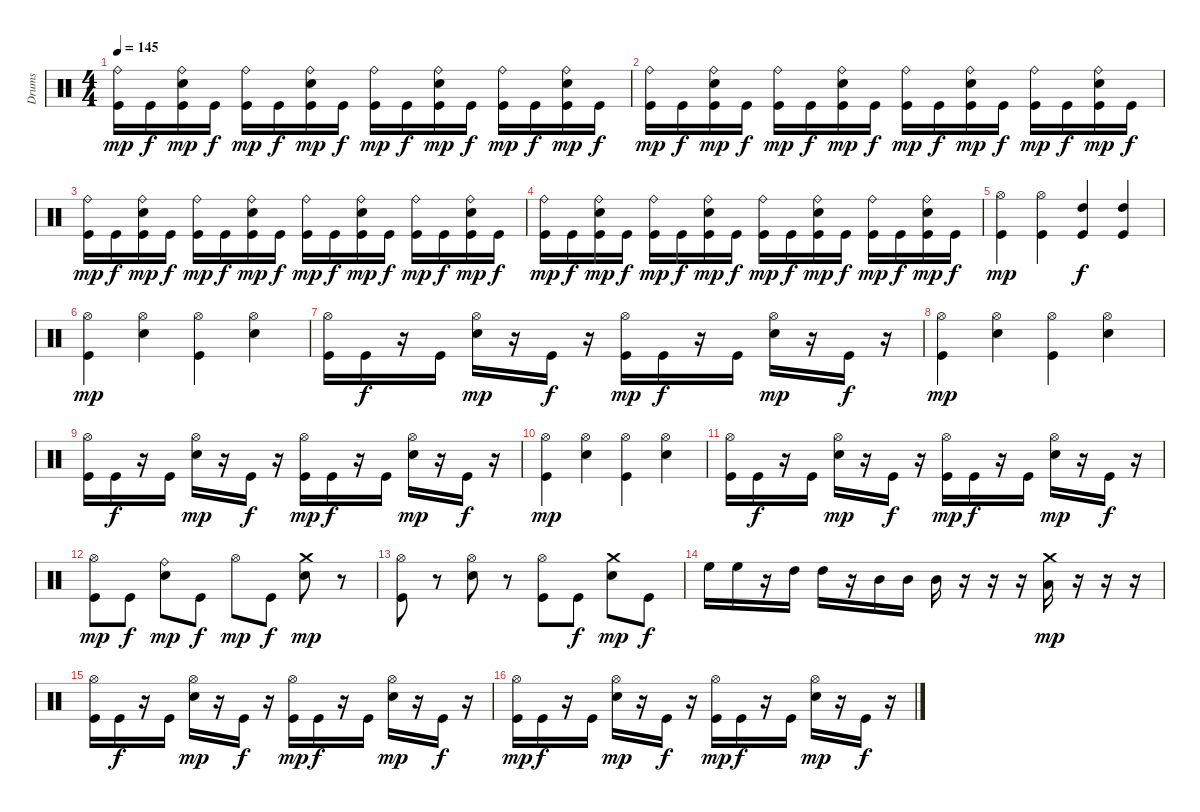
\track ("Drums" "Drums") {instrument percussion}
\staff {score}
\articulation defaults
\ts (4 4)
\tempo 145
\clef neutral
\ks c
("Kick (hit)" "Ride (bell)").16{dy mp} "Kick (hit)".16{dy f} ("Kick (hit)" "Snare (hit) 2" "Ride (bell)").16{dy mp} "Kick (hit)".16{dy f} ("Kick (hit)" "Ride (bell)").16{dy mp} "Kick (hit)".16{dy f} ("Kick (hit)" "Snare (hit) 2" "Ride (bell)").16{dy mp} "Kick (hit)".16{dy f} ("Kick (hit)" "Ride (bell)").16{dy mp} "Kick (hit)".16{dy f} ("Kick (hit)" "Snare (hit) 2" "Ride (bell)").16{dy mp} "Kick (hit)".16{dy f} ("Kick (hit)" "Ride (bell)").16{dy mp} "Kick (hit)".16{dy f} ("Kick (hit)" "Snare (hit) 2" "Ride (bell)").16{dy mp} "Kick (hit)".16{dy f} |
("Kick (hit)" "Ride (bell)").16{dy mp} "Kick (hit)".16{dy f} ("Kick (hit)" "Snare (hit) 2" "Ride (bell)").16{dy mp} "Kick (hit)".16{dy f} ("Kick (hit)" "Ride (bell)").16{dy mp} "Kick (hit)".16{dy f} ("Kick (hit)" "Snare (hit) 2" "Ride (bell)").16{dy mp} "Kick (hit)".16{dy f} ("Kick (hit)" "Ride (bell)").16{dy mp} "Kick (hit)".16{dy f} ("Kick (hit)" "Snare (hit) 2" "Ride (bell)").16{dy mp} "Kick (hit)".16{dy f} ("Kick (hit)" "Ride (bell)").16{dy mp} "Kick (hit)".16{dy f} ("Kick (hit)" "Snare (hit) 2" "Ride (bell)").16{dy mp} "Kick (hit)".16{dy f} |
("Kick (hit)" "Ride (bell)").16{dy mp} "Kick (hit)".16{dy f} ("Kick (hit)" "Snare (hit) 2" "Ride (bell)").16{dy mp} "Kick (hit)".16{dy f} ("Kick (hit)" "Ride (bell)").16{dy mp} "Kick (hit)".16{dy f} ("Kick (hit)" "Snare (hit) 2" "Ride (bell)").16{dy mp} "Kick (hit)".16{dy f} ("Kick (hit)" "Ride (bell)").16{dy mp} "Kick (hit)".16{dy f} ("Kick (hit)" "Snare (hit) 2" "Ride (bell)").16{dy mp} "Kick (hit)".16{dy f} ("Kick (hit)" "Ride (bell)").16{dy mp} "Kick (hit)".16{dy f} ("Kick (hit)" "Snare (hit) 2" "Ride (bell)").16{dy mp} "Kick (hit)".16{dy f} |
("Kick (hit)" "Ride (bell)").16{dy mp} "Kick (hit)".16{dy f} ("Kick (hit)" "Snare (hit) 2" "Ride (bell)").16{dy mp} "Kick (hit)".16{dy f} ("Kick (hit)" "Ride (bell)").16{dy mp} "Kick (hit)".16{dy f} ("Kick (hit)" "Snare (hit) 2" "Ride (bell)").16{dy mp} "Kick (hit)".16{dy f} ("Kick (hit)" "Ride (bell)").16{dy mp} "Kick (hit)".16{dy f} ("Kick (hit)" "Snare (hit) 2" "Ride (bell)").16{dy mp} "Kick (hit)".16{dy f} ("Kick (hit)" "Ride (bell)").16{dy mp} "Kick (hit)".16{dy f} ("Kick (hit)" "Snare (hit) 2" "Ride (bell)").16{dy mp} "Kick (hit)".16{dy f} |
("Kick (hit)" "Hi-Hat (open)").4{dy mp} ("Kick (hit)" "Hi-Hat (open)").4 ("High Tom (hit)" "Kick (hit)").4{dy f} ("High Tom (hit)" "Kick (hit)").4 |
("Kick (hit)" "Hi-Hat (open)").4{dy mp} ("Snare (hit) 2" "Hi-Hat (open)").4 ("Kick (hit)" "Hi-Hat (open)").4 ("Snare (hit) 2" "Hi-Hat (open)").4 |
("Kick (hit)" "Hi-Hat (open)").16 "Kick (hit)".16{dy f} r.16 "Kick (hit)".16 ("Snare (hit) 2" "Hi-Hat (open)").16{dy mp} r.16 "Kick (hit)".16{dy f} r.16 ("Kick (hit)" "Hi-Hat (open)").16{dy mp} "Kick (hit)".16{dy f} r.16 "Kick (hit)".16 ("Snare (hit) 2" "Hi-Hat (open)").16{dy mp} r.16 "Kick (hit)".16{dy f} r.16 |
("Kick (hit)" "Hi-Hat (open)").4{dy mp} ("Snare (hit) 2" "Hi-Hat (open)").4 ("Kick (hit)" "Hi-Hat (open)").4 ("Snare (hit) 2" "Hi-Hat (open)").4 |
("Kick (hit)" "Hi-Hat (open)").16 "Kick (hit)".16{dy f} r.16 "Kick (hit)".16 ("Snare (hit) 2" "Hi-Hat (open)").16{dy mp} r.16 "Kick (hit)".16{dy f} r.16 ("Kick (hit)" "Hi-Hat (open)").16{dy mp} "Kick (hit)".16{dy f} r.16 "Kick (hit)".16 ("Snare (hit) 2" "Hi-Hat (open)").16{dy mp} r.16 "Kick (hit)".16{dy f} r.16 |
("Kick (hit)" "Hi-Hat (open)").4{dy mp} ("Snare (hit) 2" "Hi-Hat (open)").4 ("Kick (hit)" "Hi-Hat (open)").4 ("Snare (hit) 2" "Hi-Hat (open)").4 |
("Kick (hit)" "Hi-Hat (open)").16 "Kick (hit)".16{dy f} r.16 "Kick (hit)".16 ("Snare (hit) 2" "Hi-Hat (open)").16{dy mp} r.16 "Kick (hit)".16{dy f} r.16 ("Kick (hit)" "Hi-Hat (open)").16{dy mp} "Kick (hit)".16{dy f} r.16 "Kick (hit)".16 ("Snare (hit) 2" "Hi-Hat (open)").16{dy mp} r.16 "Kick (hit)".16{dy f} r.16 |
("Kick (hit)" "Hi-Hat (open)").8{dy mp} "Kick (hit)".8{dy f} ("Snare (hit) 2" "Ride (bell)").8{dy mp} "Kick (hit)".8{dy f} "Hi-Hat (open)".8{dy mp} "Kick (hit)".8{dy f} ("Snare (hit) 2" "Crash medium (hit)").8{dy mp} r.8 |
("Kick (hit)" "Hi-Hat (open)").8 r.8 ("Snare (hit) 2" "Hi-Hat (open)").8 r.8 ("Kick (hit)" "Hi-Hat (open)").8 "Kick (hit)".8{dy f} ("Snare (hit) 2" "Crash medium (hit)").8{dy mp} "Kick (hit)".8{dy f} |
"High Floor Tom (hit)".16 "High Floor Tom (hit)".16 r.16 "High Tom (hit)".16 "High Tom (hit)".16 r.16 "Mid Tom (hit)".16 "Mid Tom (hit)".16 "Mid Tom (hit)".16 r.16 r.16 r.16 ("Low Tom (hit)" "Crash medium (hit)").16{dy mp} r.16 r.16 r.16 |
("Kick (hit)" "Hi-Hat (open)").16 "Kick (hit)".16{dy f} r.16 "Kick (hit)".16 ("Snare (hit) 2" "Hi-Hat (open)").16{dy mp} r.16 "Kick (hit)".16{dy f} r.16 ("Kick (hit)" "Hi-Hat (open)").16{dy mp} "Kick (hit)".16{dy f} r.16 "Kick (hit)".16 ("Snare (hit) 2" "Hi-Hat (open)").16{dy mp} r.16 "Kick (hit)".16{dy f} r.16 |
("Kick (hit)" "Hi-Hat (open)").16{dy mp} "Kick (hit)".16{dy f} r.16 "Kick (hit)".16 ("Snare (hit) 2" "Hi-Hat (open)").16{dy mp} r.16 "Kick (hit)".16{dy f} r.16 ("Kick (hit)" "Hi-Hat (open)").16{dy mp} "Kick (hit)".16{dy f} r.16 "Kick (hit)".16 ("Snare (hit) 2" "Hi-Hat (open)").16{dy mp} r.16 "Kick (hit)".16{dy f} r.16
